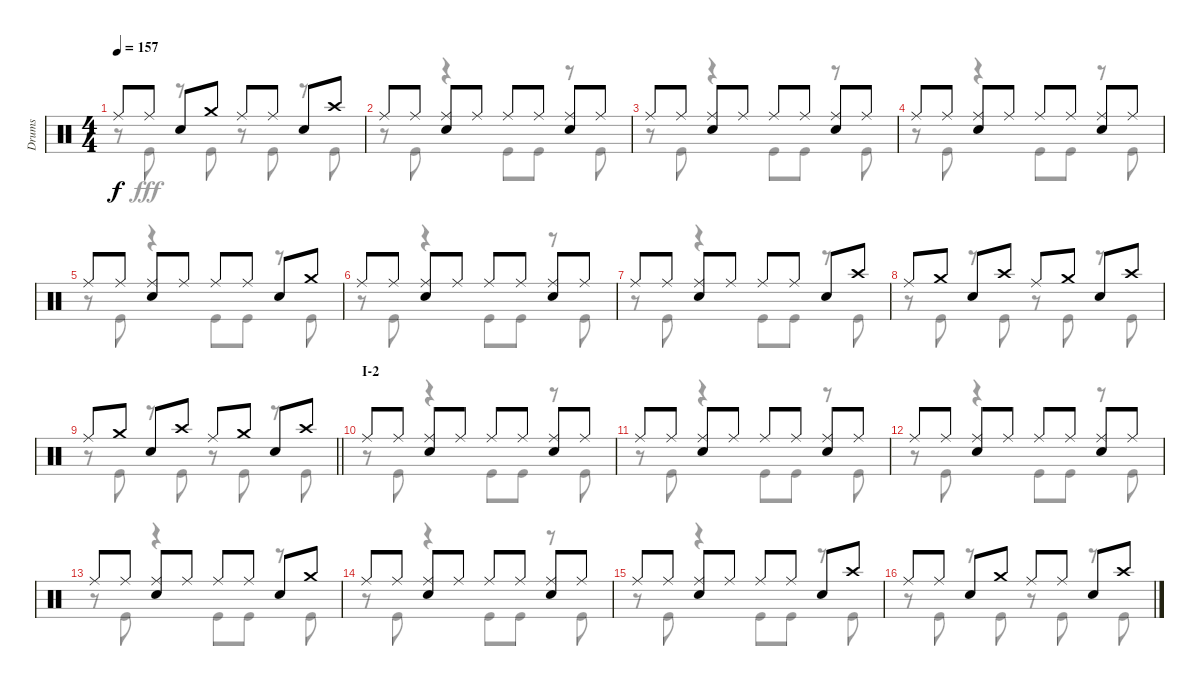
\track ("Drums" "Drums") {instrument percussion}
\staff {score}
\articulation defaults
\voice
\ts (4 4)
\tempo 157
\clef neutral
\ks c "Ride (middle)".8{dy f} "Ride (middle)".8 "Snare (hit) 2".8 "Crash medium (hit)".8 "Ride (middle)".8 "Ride (middle)".8 "Snare (hit) 2".8 "Crash high (hit)".8
|
"Ride (middle)".8 "Ride (middle)".8 ("Ride (middle)" "Snare (hit) 2").8 "Ride (middle)".8 "Ride (middle)".8 "Ride (middle)".8 ("Ride (middle)" "Snare (hit) 2").8 "Ride (middle)".8 |
"Ride (middle)".8 "Ride (middle)".8 ("Ride (middle)" "Snare (hit) 2").8 "Ride (middle)".8 "Ride (middle)".8 "Ride (middle)".8 ("Ride (middle)" "Snare (hit) 2").8 "Ride (middle)".8 |
"Ride (middle)".8 "Ride (middle)".8 ("Ride (middle)" "Snare (hit) 2").8 "Ride (middle)".8 "Ride (middle)".8 "Ride (middle)".8 ("Ride (middle)" "Snare (hit) 2").8 "Ride (middle)".8 |
"Ride (middle)".8 "Ride (middle)".8 ("Ride (middle)" "Snare (hit) 2").8 "Ride (middle)".8 "Ride (middle)".8 "Ride (middle)".8 "Snare (hit) 2".8 "Crash medium (hit)".8 |
"Ride (middle)".8 "Ride (middle)".8 ("Ride (middle)" "Snare (hit) 2").8 "Ride (middle)".8 "Ride (middle)".8 "Ride (middle)".8 ("Ride (middle)" "Snare (hit) 2").8 "Ride (middle)".8 |
"Ride (middle)".8 "Ride (middle)".8 ("Ride (middle)" "Snare (hit) 2").8 "Ride (middle)".8 "Ride (middle)".8 "Ride (middle)".8 "Snare (hit) 2".8 "Crash high (hit)".8 |
"Ride (middle)".8 "Crash medium (hit)".8 "Snare (hit) 2".8 "Crash high (hit)".8 "Ride (middle)".8 "Crash medium (hit)".8 "Snare (hit) 2".8 "Crash high (hit)".8 |
\barLineRight lightlight "Ride (middle)".8 "Crash medium (hit)".8 "Snare (hit) 2".8 "Crash high (hit)".8 "Ride (middle)".8 "Crash medium (hit)".8 "Snare (hit) 2".8 "Crash high (hit)".8
|
\section ("" "I-2")
"Ride (middle)".8 "Ride (middle)".8 ("Ride (middle)" "Snare (hit) 2").8 "Ride (middle)".8 "Ride (middle)".8 "Ride (middle)".8 ("Ride (middle)" "Snare (hit) 2").8 "Ride (middle)".8 |
"Ride (middle)".8 "Ride (middle)".8 ("Ride (middle)" "Snare (hit) 2").8 "Ride (middle)".8 "Ride (middle)".8 "Ride (middle)".8 ("Ride (middle)" "Snare (hit) 2").8 "Ride (middle)".8 |
"Ride (middle)".8 "Ride (middle)".8 ("Ride (middle)" "Snare (hit) 2").8 "Ride (middle)".8 "Ride (middle)".8 "Ride (middle)".8 ("Ride (middle)" "Snare (hit) 2").8 "Ride (middle)".8 |
"Ride (middle)".8 "Ride (middle)".8 ("Ride (middle)" "Snare (hit) 2").8 "Ride (middle)".8 "Ride (middle)".8 "Ride (middle)".8 "Snare (hit) 2".8 "Crash medium (hit)".8 |
"Ride (middle)".8 "Ride (middle)".8 ("Ride (middle)" "Snare (hit) 2").8 "Ride (middle)".8 "Ride (middle)".8 "Ride (middle)".8 ("Ride (middle)" "Snare (hit) 2").8 "Ride (middle)".8 |
"Ride (middle)".8 "Ride (middle)".8 ("Ride (middle)" "Snare (hit) 2").8 "Ride (middle)".8 "Ride (middle)".8 "Ride (middle)".8 "Snare (hit) 2".8 "Crash high (hit)".8 |
"Ride (middle)".8 "Ride (middle)".8 "Snare (hit) 2".8 "Crash medium (hit)".8 "Ride (middle)".8 "Ride (middle)".8 "Snare (hit) 2".8 "Crash high (hit)".8
\voice
\clef neutral
\ottava regular
\simile none
\ks c
r.8{dy fff} "Kick (hit)".8 r.8 "Kick (hit)".8 r.8 "Kick (hit)".8 r.8 "Kick (hit)".8 |
r.8 "Kick (hit)".8 r.4 "Kick (hit)".8 "Kick (hit)".8 r.8 "Kick (hit)".8 |
r.8 "Kick (hit)".8 r.4 "Kick (hit)".8 "Kick (hit)".8 r.8 "Kick (hit)".8 |
r.8 "Kick (hit)".8 r.4 "Kick (hit)".8 "Kick (hit)".8 r.8 "Kick (hit)".8 |
r.8 "Kick (hit)".8 r.4 "Kick (hit)".8 "Kick (hit)".8 r.8 "Kick (hit)".8 |
r.8 "Kick (hit)".8 r.4 "Kick (hit)".8 "Kick (hit)".8 r.8 "Kick (hit)".8 |
r.8 "Kick (hit)".8 r.4 "Kick (hit)".8 "Kick (hit)".8 r.8 "Kick (hit)".8 |
r.8 "Kick (hit)".8 r.8 "Kick (hit)".8 r.8 "Kick (hit)".8 r.8 "Kick (hit)".8 |
\barLineRight lightlight
r.8 "Kick (hit)".8 r.8 "Kick (hit)".8 r.8 "Kick (hit)".8 r.8 "Kick (hit)".8 |
r.8 "Kick (hit)".8 r.4 "Kick (hit)".8 "Kick (hit)".8 r.8 "Kick (hit)".8 |
r.8 "Kick (hit)".8 r.4 "Kick (hit)".8 "Kick (hit)".8 r.8 "Kick (hit)".8 |
r.8 "Kick (hit)".8 r.4 "Kick (hit)".8 "Kick (hit)".8 r.8 "Kick (hit)".8 |
r.8 "Kick (hit)".8 r.4 "Kick (hit)".8 "Kick (hit)".8 r.8 "Kick (hit)".8 |
r.8 "Kick (hit)".8 r.4 "Kick (hit)".8 "Kick (hit)".8 r.8 "Kick (hit)".8 |
r.8 "Kick (hit)".8 r.4 "Kick (hit)".8 "Kick (hit)".8 r.8 "Kick (hit)".8 |
r.8 "Kick (hit)".8 r.8 "Kick (hit)".8 r.8 "Kick (hit)".8 r.8 "Kick (hit)".8
